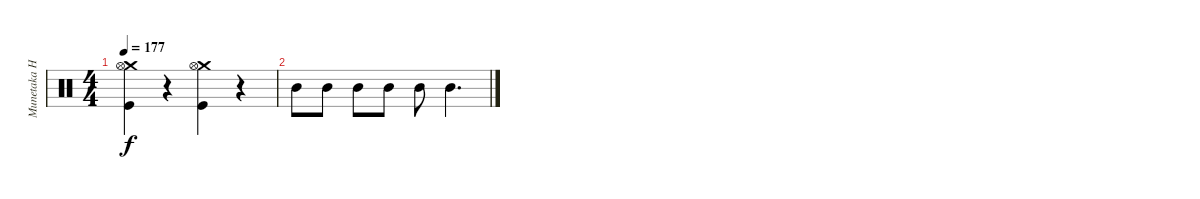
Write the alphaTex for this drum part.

\track ("Munetaka Higuchi" "Munetaka H") {instrument percussion}
\staff {score}
\articulation defaults
\ts (4 4)
\tempo 177
\clef neutral
\ks c
("Crash medium (hit)" "Hi-Hat (open)" "Kick (hit)").4{dy f} r.4 ("Crash medium (hit)" "Hi-Hat (open)" "Kick (hit)").4 r.4 |
"Mid Tom (hit)".8 "Mid Tom (hit)".8 "Mid Tom (hit)".8 "Mid Tom (hit)".8 "Mid Tom (hit)".8 "Mid Tom (hit)".4{d}
